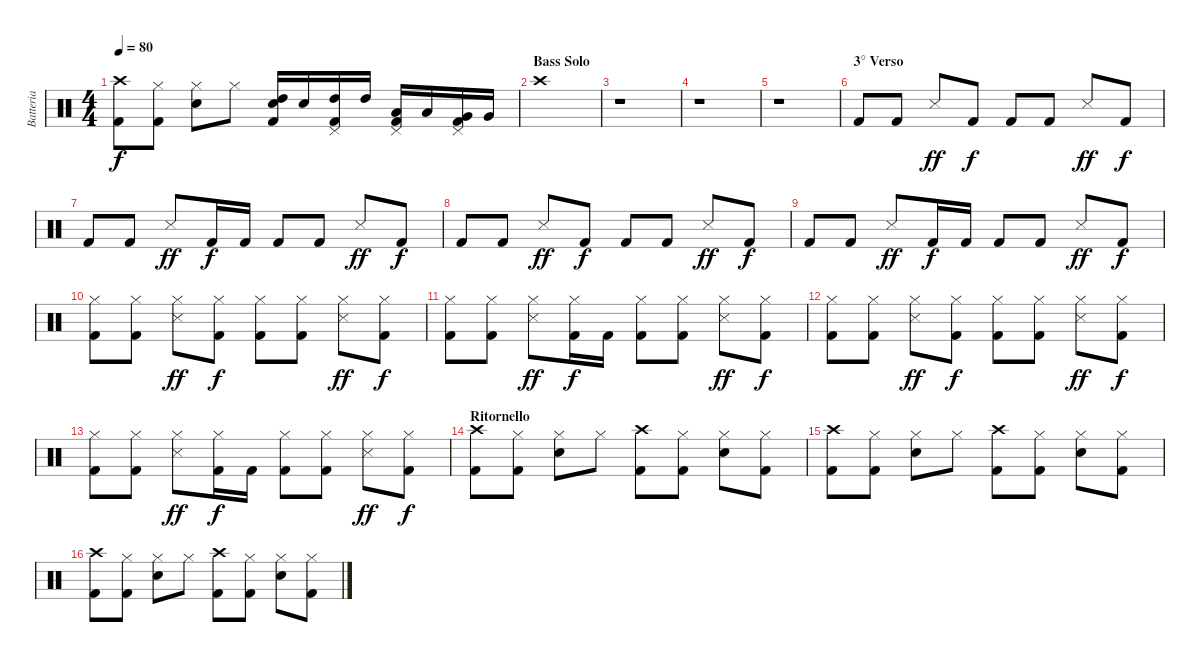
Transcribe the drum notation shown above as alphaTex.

\track ("Batteria" "Batteria") {instrument percussion}
\staff {score}
\articulation defaults
\ts (4 4)
\tempo 80
\clef neutral
\ks c
("Crash high (hit)" "Kick (hit) 2").8{dy f} ("Hi-Hat (closed)" "Kick (hit) 2").8 ("Hi-Hat (closed)" "Electric Snare (hit)").8 "Hi-Hat (closed)".8 ("High Tom (hit)" "Electric Snare (hit)" "Kick (hit) 2").16 "Electric Snare (hit)".16 ("Pedal Hi-Hat (hit)" "High Tom (hit)" "Kick (hit) 2").16 "High Tom (hit)".16 ("Pedal Hi-Hat (hit)" "Low Tom (hit)" "Kick (hit) 2").16 "Low Tom (hit)".16 ("Pedal Hi-Hat (hit)" "Very Low Tom (hit)" "Kick (hit) 2").16 "Very Low Tom (hit)".16 |
\section ("" "Bass Solo")
"Crash high (hit)".1 |
r.1 |
r.1 |
r.1 |
\section ("" "3° Verso")
"Kick (hit) 2".8 "Kick (hit) 2".8 "Snare (side stick) 3".8{dy ff} "Kick (hit) 2".8{dy f} "Kick (hit) 2".8 "Kick (hit) 2".8 "Snare (side stick) 3".8{dy ff} "Kick (hit) 2".8{dy f} |
"Kick (hit) 2".8 "Kick (hit) 2".8 "Snare (side stick) 3".8{dy ff} "Kick (hit) 2".16{dy f} "Kick (hit) 2".16 "Kick (hit) 2".8 "Kick (hit) 2".8 "Snare (side stick) 3".8{dy ff} "Kick (hit) 2".8{dy f} |
"Kick (hit) 2".8 "Kick (hit) 2".8 "Snare (side stick) 3".8{dy ff} "Kick (hit) 2".8{dy f} "Kick (hit) 2".8 "Kick (hit) 2".8 "Snare (side stick) 3".8{dy ff} "Kick (hit) 2".8{dy f} |
"Kick (hit) 2".8 "Kick (hit) 2".8 "Snare (side stick) 3".8{dy ff} "Kick (hit) 2".16{dy f} "Kick (hit) 2".16 "Kick (hit) 2".8 "Kick (hit) 2".8 "Snare (side stick) 3".8{dy ff} "Kick (hit) 2".8{dy f} |
("Hi-Hat (closed)" "Kick (hit) 2").8 ("Hi-Hat (closed)" "Kick (hit) 2").8 ("Hi-Hat (closed)" "Snare (side stick) 3").8{dy ff} ("Hi-Hat (closed)" "Kick (hit) 2").8{dy f} ("Hi-Hat (closed)" "Kick (hit) 2").8 ("Hi-Hat (closed)" "Kick (hit) 2").8 ("Hi-Hat (closed)" "Snare (side stick) 3").8{dy ff} ("Hi-Hat (closed)" "Kick (hit) 2").8{dy f} |
("Hi-Hat (closed)" "Kick (hit) 2").8 ("Hi-Hat (closed)" "Kick (hit) 2").8 ("Hi-Hat (closed)" "Snare (side stick) 3").8{dy ff} ("Hi-Hat (closed)" "Kick (hit) 2").16{dy f} "Kick (hit) 2".16 ("Hi-Hat (closed)" "Kick (hit) 2").8 ("Hi-Hat (closed)" "Kick (hit) 2").8 ("Hi-Hat (closed)" "Snare (side stick) 3").8{dy ff} ("Hi-Hat (closed)" "Kick (hit) 2").8{dy f} |
("Hi-Hat (closed)" "Kick (hit) 2").8 ("Hi-Hat (closed)" "Kick (hit) 2").8 ("Hi-Hat (closed)" "Snare (side stick) 3").8{dy ff} ("Hi-Hat (closed)" "Kick (hit) 2").8{dy f} ("Hi-Hat (closed)" "Kick (hit) 2").8 ("Hi-Hat (closed)" "Kick (hit) 2").8 ("Hi-Hat (closed)" "Snare (side stick) 3").8{dy ff} ("Hi-Hat (closed)" "Kick (hit) 2").8{dy f} |
("Hi-Hat (closed)" "Kick (hit) 2").8 ("Hi-Hat (closed)" "Kick (hit) 2").8 ("Hi-Hat (closed)" "Snare (side stick) 3").8{dy ff} ("Hi-Hat (closed)" "Kick (hit) 2").16{dy f} "Kick (hit) 2".16 ("Hi-Hat (closed)" "Kick (hit) 2").8 ("Hi-Hat (closed)" "Kick (hit) 2").8 ("Hi-Hat (closed)" "Snare (side stick) 3").8{dy ff} ("Hi-Hat (closed)" "Kick (hit) 2").8{dy f} |
\section ("" "Ritornello")
("Crash high (hit)" "Kick (hit) 2").8 ("Hi-Hat (closed)" "Kick (hit) 2").8 ("Hi-Hat (closed)" "Electric Snare (hit)").8 "Hi-Hat (closed)".8 ("Crash high (hit)" "Kick (hit) 2").8 ("Hi-Hat (closed)" "Kick (hit) 2").8 ("Hi-Hat (closed)" "Electric Snare (hit)").8 ("Hi-Hat (closed)" "Kick (hit) 2").8 |
("Crash high (hit)" "Kick (hit) 2").8 ("Hi-Hat (closed)" "Kick (hit) 2").8 ("Hi-Hat (closed)" "Electric Snare (hit)").8 "Hi-Hat (closed)".8 ("Crash high (hit)" "Kick (hit) 2").8 ("Hi-Hat (closed)" "Kick (hit) 2").8 ("Hi-Hat (closed)" "Electric Snare (hit)").8 ("Hi-Hat (closed)" "Kick (hit) 2").8 |
("Crash high (hit)" "Kick (hit) 2").8 ("Hi-Hat (closed)" "Kick (hit) 2").8 ("Hi-Hat (closed)" "Electric Snare (hit)").8 "Hi-Hat (closed)".8 ("Crash high (hit)" "Kick (hit) 2").8 ("Hi-Hat (closed)" "Kick (hit) 2").8 ("Hi-Hat (closed)" "Electric Snare (hit)").8 ("Hi-Hat (closed)" "Kick (hit) 2").8
